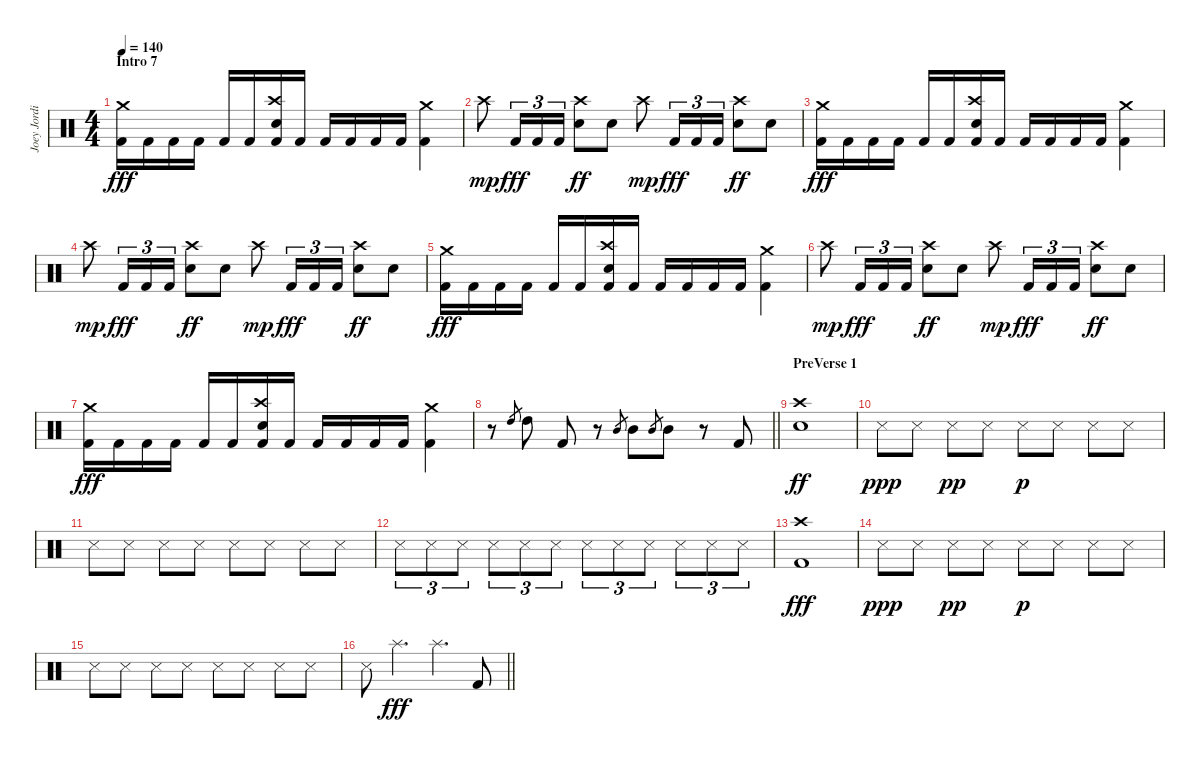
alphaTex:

\track ("Joey Jordison" "Joey Jordi") {instrument percussion}
\staff {score}
\articulation defaults
\ts (4 4)
\section ("" "Intro 7")
\tempo 140
\clef neutral
\ks c
("Crash medium (hit)" "Kick (hit) 2").16{dy fff} "Kick (hit) 2".16 "Kick (hit) 2".16 "Kick (hit) 2".16 "Kick (hit) 2".16 "Kick (hit) 2".16 ("Crash high (hit)" "Electric Snare (hit)" "Kick (hit) 2").16 "Kick (hit) 2".16 "Kick (hit) 2".16 "Kick (hit) 2".16 "Kick (hit) 2".16 "Kick (hit) 2".16 ("Crash medium (hit)" "Kick (hit) 2").4 |
"Crash high (hit)".8{dy mp} "Kick (hit) 2".16{tu (3 2) dy fff} "Kick (hit) 2".16{tu (3 2)} "Kick (hit) 2".16{tu (3 2)} ("Crash high (hit)" "Electric Snare (hit)").8{dy ff} "Electric Snare (hit)".8 "Crash high (hit)".8{dy mp} "Kick (hit) 2".16{tu (3 2) dy fff} "Kick (hit) 2".16{tu (3 2)} "Kick (hit) 2".16{tu (3 2)} ("Crash high (hit)" "Electric Snare (hit)").8{dy ff} "Electric Snare (hit)".8 |
("Crash medium (hit)" "Kick (hit) 2").16{dy fff} "Kick (hit) 2".16 "Kick (hit) 2".16 "Kick (hit) 2".16 "Kick (hit) 2".16 "Kick (hit) 2".16 ("Crash high (hit)" "Electric Snare (hit)" "Kick (hit) 2").16 "Kick (hit) 2".16 "Kick (hit) 2".16 "Kick (hit) 2".16 "Kick (hit) 2".16 "Kick (hit) 2".16 ("Crash medium (hit)" "Kick (hit) 2").4 |
"Crash high (hit)".8{dy mp} "Kick (hit) 2".16{tu (3 2) dy fff} "Kick (hit) 2".16{tu (3 2)} "Kick (hit) 2".16{tu (3 2)} ("Crash high (hit)" "Electric Snare (hit)").8{dy ff} "Electric Snare (hit)".8 "Crash high (hit)".8{dy mp} "Kick (hit) 2".16{tu (3 2) dy fff} "Kick (hit) 2".16{tu (3 2)} "Kick (hit) 2".16{tu (3 2)} ("Crash high (hit)" "Electric Snare (hit)").8{dy ff} "Electric Snare (hit)".8 |
("Crash medium (hit)" "Kick (hit) 2").16{dy fff} "Kick (hit) 2".16 "Kick (hit) 2".16 "Kick (hit) 2".16 "Kick (hit) 2".16 "Kick (hit) 2".16 ("Crash high (hit)" "Electric Snare (hit)" "Kick (hit) 2").16 "Kick (hit) 2".16 "Kick (hit) 2".16 "Kick (hit) 2".16 "Kick (hit) 2".16 "Kick (hit) 2".16 ("Crash medium (hit)" "Kick (hit) 2").4 |
"Crash high (hit)".8{dy mp} "Kick (hit) 2".16{tu (3 2) dy fff} "Kick (hit) 2".16{tu (3 2)} "Kick (hit) 2".16{tu (3 2)} ("Crash high (hit)" "Electric Snare (hit)").8{dy ff} "Electric Snare (hit)".8 "Crash high (hit)".8{dy mp} "Kick (hit) 2".16{tu (3 2) dy fff} "Kick (hit) 2".16{tu (3 2)} "Kick (hit) 2".16{tu (3 2)} ("Crash high (hit)" "Electric Snare (hit)").8{dy ff} "Electric Snare (hit)".8 |
("Crash medium (hit)" "Kick (hit) 2").16{dy fff} "Kick (hit) 2".16 "Kick (hit) 2".16 "Kick (hit) 2".16 "Kick (hit) 2".16 "Kick (hit) 2".16 ("Crash high (hit)" "Electric Snare (hit)" "Kick (hit) 2").16 "Kick (hit) 2".16 "Kick (hit) 2".16 "Kick (hit) 2".16 "Kick (hit) 2".16 "Kick (hit) 2".16 ("Crash medium (hit)" "Kick (hit) 2").4 |
\barLineRight lightlight
r.8 "High Tom (hit)".8{gr} "High Tom (hit)".8 "Kick (hit) 2".8 r.8 "Mid Tom (hit)".8{gr} "Mid Tom (hit)".8 "Mid Tom (hit)".8{gr} "Mid Tom (hit)".8 r.8 "Kick (hit) 2".8 |
\section ("" "PreVerse 1")
("Crash high (hit)" "Electric Snare (hit)").1{dy ff} |
"Snare (side stick) 3".8{dy ppp} "Snare (side stick) 3".8 "Snare (side stick) 3".8{dy pp} "Snare (side stick) 3".8 "Snare (side stick) 3".8{dy p} "Snare (side stick) 3".8 "Snare (side stick) 3".8 "Snare (side stick) 3".8 |
"Snare (side stick) 3".8 "Snare (side stick) 3".8 "Snare (side stick) 3".8 "Snare (side stick) 3".8 "Snare (side stick) 3".8 "Snare (side stick) 3".8 "Snare (side stick) 3".8 "Snare (side stick) 3".8 |
"Snare (side stick) 3".8{tu (3 2)} "Snare (side stick) 3".8{tu (3 2)} "Snare (side stick) 3".8{tu (3 2)} "Snare (side stick) 3".8{tu (3 2)} "Snare (side stick) 3".8{tu (3 2)} "Snare (side stick) 3".8{tu (3 2)} "Snare (side stick) 3".8{tu (3 2)} "Snare (side stick) 3".8{tu (3 2)} "Snare (side stick) 3".8{tu (3 2)} "Snare (side stick) 3".8{tu (3 2)} "Snare (side stick) 3".8{tu (3 2)} "Snare (side stick) 3".8{tu (3 2)} |
("Crash high (hit)" "Kick (hit) 2").1{dy fff} |
"Snare (side stick) 3".8{dy ppp} "Snare (side stick) 3".8 "Snare (side stick) 3".8{dy pp} "Snare (side stick) 3".8 "Snare (side stick) 3".8{dy p} "Snare (side stick) 3".8 "Snare (side stick) 3".8 "Snare (side stick) 3".8 |
"Snare (side stick) 3".8 "Snare (side stick) 3".8 "Snare (side stick) 3".8 "Snare (side stick) 3".8 "Snare (side stick) 3".8 "Snare (side stick) 3".8 "Snare (side stick) 3".8 "Snare (side stick) 3".8 |
\barLineRight lightlight "Snare (side stick) 3".8 "Splash (hit)".4{d dy fff} "Splash (hit)".4{d} "Kick (hit) 2".8
